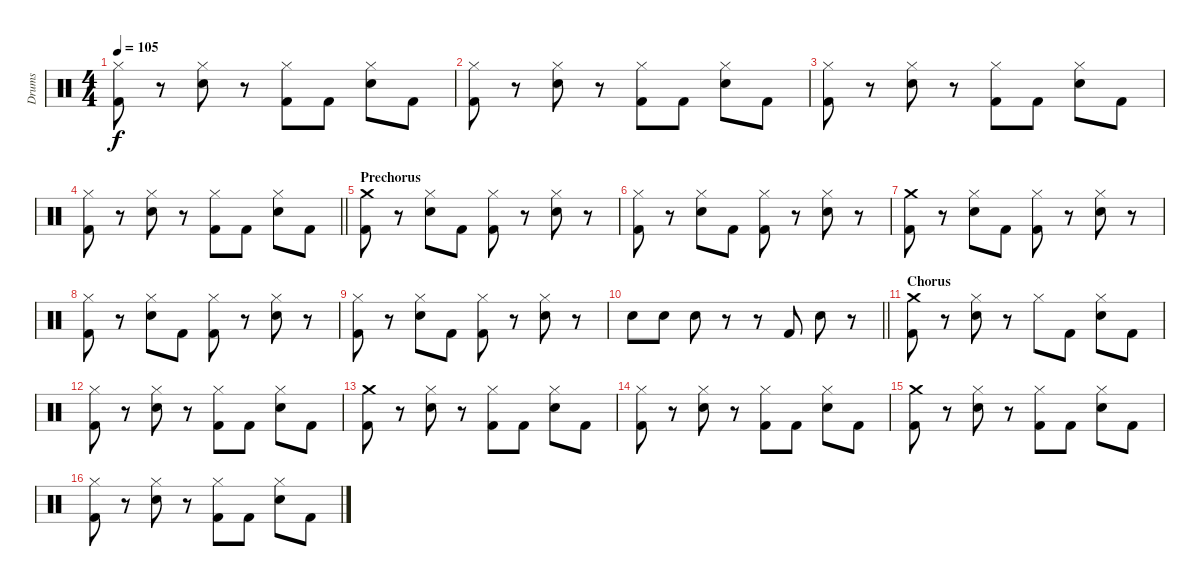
\track ("Drums" "Drums") {instrument percussion}
\staff {score}
\articulation defaults
\ts (4 4)
\tempo 105
\clef neutral
\ks c
("Hi-Hat (closed)" "Kick (hit) 2").8{dy f} r.8 ("Hi-Hat (closed)" "Snare (hit) 2").8 r.8 ("Hi-Hat (closed)" "Kick (hit) 2").8 "Kick (hit) 2".8 ("Hi-Hat (closed)" "Snare (hit) 2").8 "Kick (hit) 2".8 |
("Hi-Hat (closed)" "Kick (hit) 2").8 r.8 ("Hi-Hat (closed)" "Snare (hit) 2").8 r.8 ("Hi-Hat (closed)" "Kick (hit) 2").8 "Kick (hit) 2".8 ("Hi-Hat (closed)" "Snare (hit) 2").8 "Kick (hit) 2".8 |
("Hi-Hat (closed)" "Kick (hit) 2").8 r.8 ("Hi-Hat (closed)" "Snare (hit) 2").8 r.8 ("Hi-Hat (closed)" "Kick (hit) 2").8 "Kick (hit) 2".8 ("Hi-Hat (closed)" "Snare (hit) 2").8 "Kick (hit) 2".8 |
\barLineRight lightlight
("Hi-Hat (closed)" "Kick (hit) 2").8 r.8 ("Hi-Hat (closed)" "Snare (hit) 2").8 r.8 ("Hi-Hat (closed)" "Kick (hit) 2").8 "Kick (hit) 2".8 ("Hi-Hat (closed)" "Snare (hit) 2").8 "Kick (hit) 2".8 |
\section ("" "Prechorus")
("Crash medium (hit)" "Kick (hit) 2").8 r.8 ("Hi-Hat (closed)" "Snare (hit) 2").8 "Kick (hit) 2".8 ("Hi-Hat (closed)" "Kick (hit) 2").8 r.8 ("Hi-Hat (closed)" "Snare (hit) 2").8 r.8 |
("Hi-Hat (closed)" "Kick (hit) 2").8 r.8 ("Hi-Hat (closed)" "Snare (hit) 2").8 "Kick (hit) 2".8 ("Hi-Hat (closed)" "Kick (hit) 2").8 r.8 ("Hi-Hat (closed)" "Snare (hit) 2").8 r.8 |
("Crash medium (hit)" "Kick (hit) 2").8 r.8 ("Hi-Hat (closed)" "Snare (hit) 2").8 "Kick (hit) 2".8 ("Hi-Hat (closed)" "Kick (hit) 2").8 r.8 ("Hi-Hat (closed)" "Snare (hit) 2").8 r.8 |
("Hi-Hat (closed)" "Kick (hit) 2").8 r.8 ("Hi-Hat (closed)" "Snare (hit) 2").8 "Kick (hit) 2".8 ("Hi-Hat (closed)" "Kick (hit) 2").8 r.8 ("Hi-Hat (closed)" "Snare (hit) 2").8 r.8 |
("Hi-Hat (closed)" "Kick (hit) 2").8 r.8 ("Hi-Hat (closed)" "Snare (hit) 2").8 "Kick (hit) 2".8 ("Hi-Hat (closed)" "Kick (hit) 2").8 r.8 ("Hi-Hat (closed)" "Snare (hit) 2").8 r.8 |
\barLineRight lightlight "Snare (hit) 2".8 "Snare (hit) 2".8 "Snare (hit) 2".8
r.8 r.8 "Kick (hit) 2".8 "Snare (hit) 2".8 r.8 |
\section ("" "Chorus")
("Crash medium (hit)" "Kick (hit) 2").8 r.8 ("Hi-Hat (closed)" "Snare (hit) 2").8 r.8 "Hi-Hat (closed)".8 "Kick (hit) 2".8 ("Hi-Hat (closed)" "Snare (hit) 2").8 "Kick (hit) 2".8 |
("Hi-Hat (closed)" "Kick (hit) 2").8 r.8 ("Hi-Hat (closed)" "Snare (hit) 2").8 r.8 ("Hi-Hat (closed)" "Kick (hit) 2").8 "Kick (hit) 2".8 ("Hi-Hat (closed)" "Snare (hit) 2").8 "Kick (hit) 2".8 |
("Crash medium (hit)" "Kick (hit) 2").8 r.8 ("Hi-Hat (closed)" "Snare (hit) 2").8 r.8 ("Hi-Hat (closed)" "Kick (hit) 2").8 "Kick (hit) 2".8 ("Hi-Hat (closed)" "Snare (hit) 2").8 "Kick (hit) 2".8 |
("Hi-Hat (closed)" "Kick (hit) 2").8 r.8 ("Hi-Hat (closed)" "Snare (hit) 2").8 r.8 ("Hi-Hat (closed)" "Kick (hit) 2").8 "Kick (hit) 2".8 ("Hi-Hat (closed)" "Snare (hit) 2").8 "Kick (hit) 2".8 |
("Crash medium (hit)" "Kick (hit) 2").8 r.8 ("Hi-Hat (closed)" "Snare (hit) 2").8 r.8 ("Hi-Hat (closed)" "Kick (hit) 2").8 "Kick (hit) 2".8 ("Hi-Hat (closed)" "Snare (hit) 2").8 "Kick (hit) 2".8 |
("Hi-Hat (closed)" "Kick (hit) 2").8 r.8 ("Hi-Hat (closed)" "Snare (hit) 2").8 r.8 ("Hi-Hat (closed)" "Kick (hit) 2").8 "Kick (hit) 2".8 ("Hi-Hat (closed)" "Snare (hit) 2").8 "Kick (hit) 2".8
